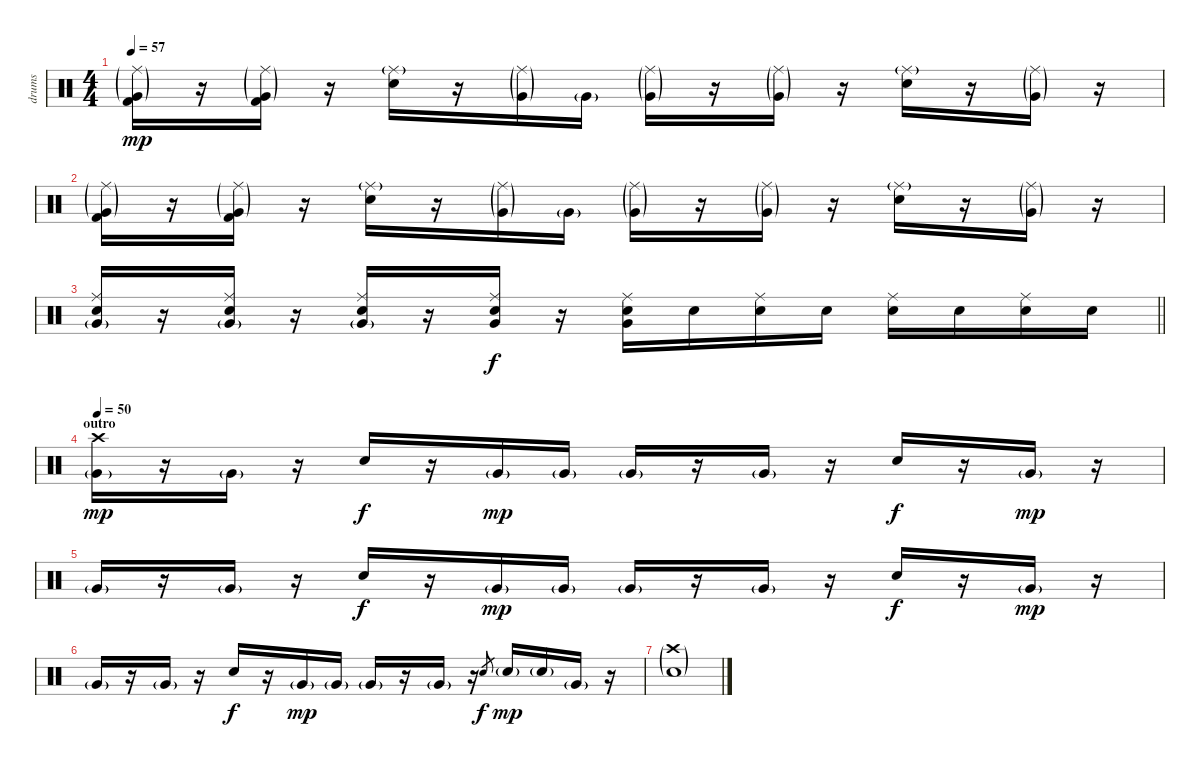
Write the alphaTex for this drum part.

\track ("drums" "drums") {instrument percussion}
\staff {score}
\articulation defaults
\ts (4 4)
\tempo 57
\clef neutral
\ks c
("Kick (hit) 2" "Very Low Tom (hit)"{g} "Ride (middle)"{g}).16{dy mp} r.16 ("Kick (hit) 2" "Very Low Tom (hit)"{g} "Ride (middle)"{g}).16 r.16 ("Electric Snare (hit)" "Ride (middle)"{g}).16 r.16 ("Very Low Tom (hit)"{g} "Ride (middle)"{g}).16 "Very Low Tom (hit)"{g}.16 ("Very Low Tom (hit)"{g} "Ride (middle)"{g}).16 r.16 ("Very Low Tom (hit)"{g} "Ride (middle)"{g}).16 r.16 ("Electric Snare (hit)" "Ride (middle)"{g}).16 r.16 ("Very Low Tom (hit)"{g} "Ride (middle)"{g}).16 r.16 |
("Kick (hit) 2" "Very Low Tom (hit)"{g} "Ride (middle)"{g}).16 r.16 ("Kick (hit) 2" "Very Low Tom (hit)"{g} "Ride (middle)"{g}).16 r.16 ("Electric Snare (hit)" "Ride (middle)"{g}).16 r.16 ("Very Low Tom (hit)"{g} "Ride (middle)"{g}).16 "Very Low Tom (hit)"{g}.16 ("Very Low Tom (hit)"{g} "Ride (middle)"{g}).16 r.16 ("Very Low Tom (hit)"{g} "Ride (middle)"{g}).16 r.16 ("Electric Snare (hit)" "Ride (middle)"{g}).16 r.16 ("Very Low Tom (hit)"{g} "Ride (middle)"{g}).16 r.16 |
\barLineRight lightlight
("Electric Snare (hit)" "Very Low Tom (hit)"{g} "Ride (middle)").16 r.16 ("Electric Snare (hit)" "Very Low Tom (hit)"{g} "Ride (middle)").16 r.16 ("Electric Snare (hit)" "Very Low Tom (hit)"{g} "Ride (middle)").16 r.16 ("Electric Snare (hit)" "Very Low Tom (hit)" "Ride (middle)").16{dy f} r.16 ("Electric Snare (hit)" "Very Low Tom (hit)" "Ride (middle)").16 "Electric Snare (hit)".16 ("Electric Snare (hit)" "Ride (middle)").16 "Electric Snare (hit)".16 ("Electric Snare (hit)" "Ride (middle)").16 "Electric Snare (hit)".16 ("Electric Snare (hit)" "Ride (middle)").16 "Electric Snare (hit)".16 |
\section ("" "outro")
\tempo 50
("Very Low Tom (hit)"{g} "Crash high (hit)").16{dy mp} r.16 "Very Low Tom (hit)"{g}.16 r.16 "Electric Snare (hit)".16{dy f} r.16 "Very Low Tom (hit)"{g}.16{dy mp} "Very Low Tom (hit)"{g}.16 "Very Low Tom (hit)"{g}.16 r.16 "Very Low Tom (hit)"{g}.16 r.16 "Electric Snare (hit)".16{dy f} r.16 "Very Low Tom (hit)"{g}.16{dy mp} r.16 |
"Very Low Tom (hit)"{g}.16 r.16 "Very Low Tom (hit)"{g}.16 r.16 "Electric Snare (hit)".16{dy f} r.16 "Very Low Tom (hit)"{g}.16{dy mp} "Very Low Tom (hit)"{g}.16 "Very Low Tom (hit)"{g}.16 r.16 "Very Low Tom (hit)"{g}.16 r.16 "Electric Snare (hit)".16{dy f} r.16 "Very Low Tom (hit)"{g}.16{dy mp} r.16 |
"Very Low Tom (hit)"{g}.16 r.16 "Very Low Tom (hit)"{g}.16 r.16 "Electric Snare (hit)".16{dy f} r.16 "Very Low Tom (hit)"{g}.16{dy mp} "Very Low Tom (hit)"{g}.16 "Very Low Tom (hit)"{g}.16 r.16 "Very Low Tom (hit)"{g}.16 r.16 "Electric Snare (hit)".8{gr dy f} "Electric Snare (hit)"{g}.16{dy mp} "Electric Snare (hit)"{g}.16 "Very Low Tom (hit)"{g}.16 r.16 |
("Electric Snare (hit)"{g} "Crash high (hit)"{g}).1
